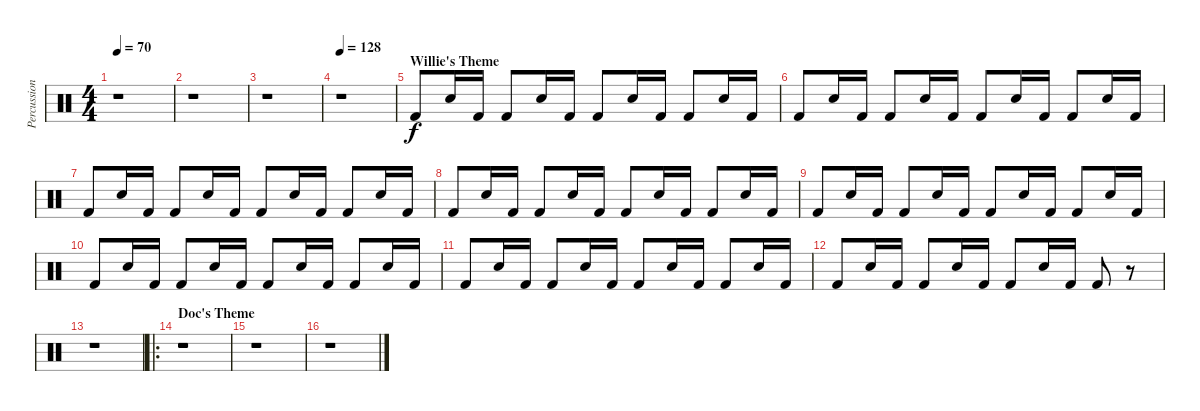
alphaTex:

\track ("Percussion" "Percussion") {instrument percussion}
\staff {score}
\articulation defaults
\ts (4 4)
\tempo 70
\clef neutral
\ks c
r.1{dy f} |
r.1 |
r.1 |
\tempo 128
r.1 |
\section ("" "Willie's Theme")
"Kick (hit) 2".8 "Snare (hit) 2".16 "Kick (hit) 2".16 "Kick (hit) 2".8 "Snare (hit) 2".16 "Kick (hit) 2".16 "Kick (hit) 2".8 "Snare (hit) 2".16 "Kick (hit) 2".16 "Kick (hit) 2".8 "Snare (hit) 2".16 "Kick (hit) 2".16 |
"Kick (hit) 2".8 "Snare (hit) 2".16 "Kick (hit) 2".16 "Kick (hit) 2".8 "Snare (hit) 2".16 "Kick (hit) 2".16 "Kick (hit) 2".8 "Snare (hit) 2".16 "Kick (hit) 2".16 "Kick (hit) 2".8 "Snare (hit) 2".16 "Kick (hit) 2".16 |
"Kick (hit) 2".8 "Snare (hit) 2".16 "Kick (hit) 2".16 "Kick (hit) 2".8 "Snare (hit) 2".16 "Kick (hit) 2".16 "Kick (hit) 2".8 "Snare (hit) 2".16 "Kick (hit) 2".16 "Kick (hit) 2".8 "Snare (hit) 2".16 "Kick (hit) 2".16 |
"Kick (hit) 2".8 "Snare (hit) 2".16 "Kick (hit) 2".16 "Kick (hit) 2".8 "Snare (hit) 2".16 "Kick (hit) 2".16 "Kick (hit) 2".8 "Snare (hit) 2".16 "Kick (hit) 2".16 "Kick (hit) 2".8 "Snare (hit) 2".16 "Kick (hit) 2".16 |
"Kick (hit) 2".8 "Snare (hit) 2".16 "Kick (hit) 2".16 "Kick (hit) 2".8 "Snare (hit) 2".16 "Kick (hit) 2".16 "Kick (hit) 2".8 "Snare (hit) 2".16 "Kick (hit) 2".16 "Kick (hit) 2".8 "Snare (hit) 2".16 "Kick (hit) 2".16 |
"Kick (hit) 2".8 "Snare (hit) 2".16 "Kick (hit) 2".16 "Kick (hit) 2".8 "Snare (hit) 2".16 "Kick (hit) 2".16 "Kick (hit) 2".8 "Snare (hit) 2".16 "Kick (hit) 2".16 "Kick (hit) 2".8 "Snare (hit) 2".16 "Kick (hit) 2".16 |
"Kick (hit) 2".8 "Snare (hit) 2".16 "Kick (hit) 2".16 "Kick (hit) 2".8 "Snare (hit) 2".16 "Kick (hit) 2".16 "Kick (hit) 2".8 "Snare (hit) 2".16 "Kick (hit) 2".16 "Kick (hit) 2".8 "Snare (hit) 2".16 "Kick (hit) 2".16 |
"Kick (hit) 2".8 "Snare (hit) 2".16 "Kick (hit) 2".16 "Kick (hit) 2".8 "Snare (hit) 2".16 "Kick (hit) 2".16 "Kick (hit) 2".8 "Snare (hit) 2".16 "Kick (hit) 2".16 "Kick (hit) 2".8 r.8 |
r.1 |
\ro
\section ("" "Doc's Theme")
r.1 |
r.1 |
r.1
